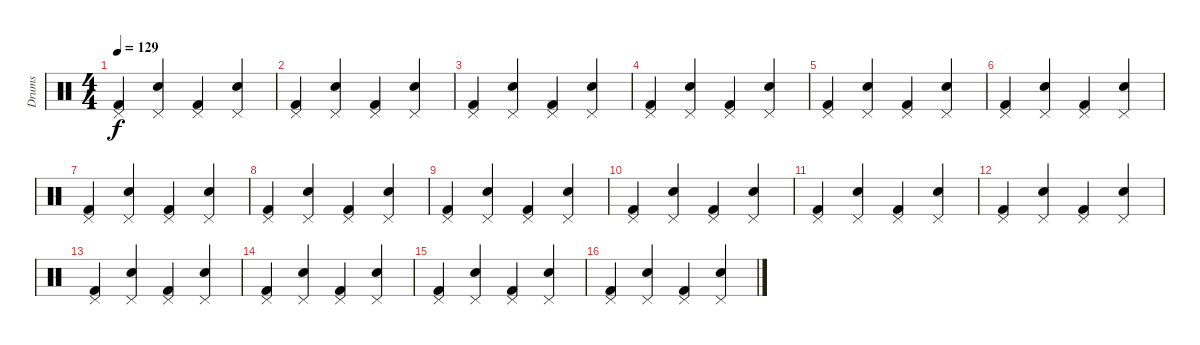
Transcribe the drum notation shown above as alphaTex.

\track ("Drums" "Drums") {instrument percussion}
\staff {score}
\articulation defaults
\ts (4 4)
\tempo 129
\clef neutral
\ks c
("Pedal Hi-Hat (hit)" "Kick (hit) 2").4{dy f} ("Pedal Hi-Hat (hit)" "Snare (hit) 2").4 ("Pedal Hi-Hat (hit)" "Kick (hit) 2").4 ("Pedal Hi-Hat (hit)" "Snare (hit) 2").4 |
("Pedal Hi-Hat (hit)" "Kick (hit) 2").4 ("Pedal Hi-Hat (hit)" "Snare (hit) 2").4 ("Pedal Hi-Hat (hit)" "Kick (hit) 2").4 ("Pedal Hi-Hat (hit)" "Snare (hit) 2").4 |
("Pedal Hi-Hat (hit)" "Kick (hit) 2").4 ("Pedal Hi-Hat (hit)" "Snare (hit) 2").4 ("Pedal Hi-Hat (hit)" "Kick (hit) 2").4 ("Pedal Hi-Hat (hit)" "Snare (hit) 2").4 |
("Pedal Hi-Hat (hit)" "Kick (hit) 2").4 ("Pedal Hi-Hat (hit)" "Snare (hit) 2").4 ("Pedal Hi-Hat (hit)" "Kick (hit) 2").4 ("Pedal Hi-Hat (hit)" "Snare (hit) 2").4 |
("Pedal Hi-Hat (hit)" "Kick (hit) 2").4 ("Pedal Hi-Hat (hit)" "Snare (hit) 2").4 ("Pedal Hi-Hat (hit)" "Kick (hit) 2").4 ("Pedal Hi-Hat (hit)" "Snare (hit) 2").4 |
("Pedal Hi-Hat (hit)" "Kick (hit) 2").4 ("Pedal Hi-Hat (hit)" "Snare (hit) 2").4 ("Pedal Hi-Hat (hit)" "Kick (hit) 2").4 ("Pedal Hi-Hat (hit)" "Snare (hit) 2").4 |
("Pedal Hi-Hat (hit)" "Kick (hit) 2").4 ("Pedal Hi-Hat (hit)" "Snare (hit) 2").4 ("Pedal Hi-Hat (hit)" "Kick (hit) 2").4 ("Pedal Hi-Hat (hit)" "Snare (hit) 2").4 |
("Pedal Hi-Hat (hit)" "Kick (hit) 2").4 ("Pedal Hi-Hat (hit)" "Snare (hit) 2").4 ("Pedal Hi-Hat (hit)" "Kick (hit) 2").4 ("Pedal Hi-Hat (hit)" "Snare (hit) 2").4 |
("Pedal Hi-Hat (hit)" "Kick (hit) 2").4 ("Pedal Hi-Hat (hit)" "Snare (hit) 2").4 ("Pedal Hi-Hat (hit)" "Kick (hit) 2").4 ("Pedal Hi-Hat (hit)" "Snare (hit) 2").4 |
("Pedal Hi-Hat (hit)" "Kick (hit) 2").4 ("Pedal Hi-Hat (hit)" "Snare (hit) 2").4 ("Pedal Hi-Hat (hit)" "Kick (hit) 2").4 ("Pedal Hi-Hat (hit)" "Snare (hit) 2").4 |
("Pedal Hi-Hat (hit)" "Kick (hit) 2").4 ("Pedal Hi-Hat (hit)" "Snare (hit) 2").4 ("Pedal Hi-Hat (hit)" "Kick (hit) 2").4 ("Pedal Hi-Hat (hit)" "Snare (hit) 2").4 |
("Pedal Hi-Hat (hit)" "Kick (hit) 2").4 ("Pedal Hi-Hat (hit)" "Snare (hit) 2").4 ("Pedal Hi-Hat (hit)" "Kick (hit) 2").4 ("Pedal Hi-Hat (hit)" "Snare (hit) 2").4 |
("Pedal Hi-Hat (hit)" "Kick (hit) 2").4 ("Pedal Hi-Hat (hit)" "Snare (hit) 2").4 ("Pedal Hi-Hat (hit)" "Kick (hit) 2").4 ("Pedal Hi-Hat (hit)" "Snare (hit) 2").4 |
("Pedal Hi-Hat (hit)" "Kick (hit) 2").4 ("Pedal Hi-Hat (hit)" "Snare (hit) 2").4 ("Pedal Hi-Hat (hit)" "Kick (hit) 2").4 ("Pedal Hi-Hat (hit)" "Snare (hit) 2").4 |
("Pedal Hi-Hat (hit)" "Kick (hit) 2").4 ("Pedal Hi-Hat (hit)" "Snare (hit) 2").4 ("Pedal Hi-Hat (hit)" "Kick (hit) 2").4 ("Pedal Hi-Hat (hit)" "Snare (hit) 2").4 |
("Pedal Hi-Hat (hit)" "Kick (hit) 2").4 ("Pedal Hi-Hat (hit)" "Snare (hit) 2").4 ("Pedal Hi-Hat (hit)" "Kick (hit) 2").4 ("Pedal Hi-Hat (hit)" "Snare (hit) 2").4
